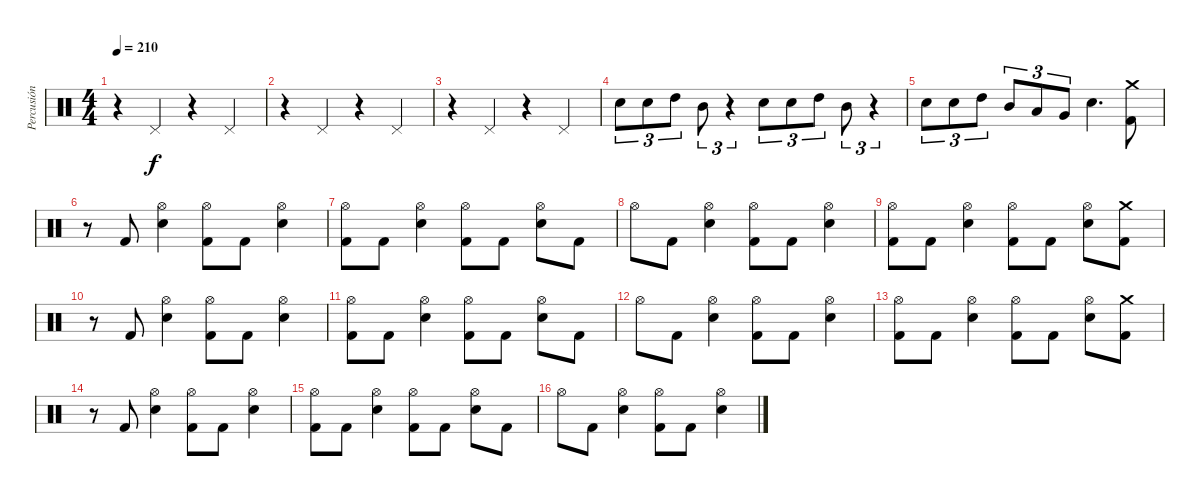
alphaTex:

\track ("Percusión" "Percusión") {instrument percussion}
\staff {score}
\articulation defaults
\ts (4 4)
\tempo 210
\clef neutral
\ks c
r.4{dy f} "Pedal Hi-Hat (hit)".4 r.4 "Pedal Hi-Hat (hit)".4 |
r.4 "Pedal Hi-Hat (hit)".4 r.4 "Pedal Hi-Hat (hit)".4 |
r.4 "Pedal Hi-Hat (hit)".4 r.4 "Pedal Hi-Hat (hit)".4 |
\section ("" "")
"Snare (hit) 2".8{tu (3 2)} "Snare (hit) 2".8{tu (3 2)} "High Tom (hit)".8{tu (3 2)} "Mid Tom (hit)".8{tu (3 2)} r.4{tu (3 2)} "Snare (hit) 2".8{tu (3 2)} "Snare (hit) 2".8{tu (3 2)} "High Tom (hit)".8{tu (3 2)} "Mid Tom (hit)".8{tu (3 2)} r.4{tu (3 2)} |
"Snare (hit) 2".8{tu (3 2)} "Snare (hit) 2".8{tu (3 2)} "High Tom (hit)".8{tu (3 2)} "Mid Tom (hit)".8{tu (3 2)} "Low Tom (hit)".8{tu (3 2)} "Very Low Tom (hit)".8{tu (3 2)} "Snare (hit) 2".4{d} ("Kick (hit) 2" "Crash medium (hit)").8 |
r.8 "Kick (hit) 2".8 ("Hi-Hat (open)" "Snare (hit) 2").4 ("Hi-Hat (open)" "Kick (hit) 2").8 "Kick (hit) 2".8 ("Hi-Hat (open)" "Snare (hit) 2").4 |
("Hi-Hat (open)" "Kick (hit) 2").8 "Kick (hit) 2".8 ("Hi-Hat (open)" "Snare (hit) 2").4 ("Hi-Hat (open)" "Kick (hit) 2").8 "Kick (hit) 2".8 ("Hi-Hat (open)" "Snare (hit) 2").8 "Kick (hit) 2".8 |
"Hi-Hat (open)".8 "Kick (hit) 2".8 ("Hi-Hat (open)" "Snare (hit) 2").4 ("Hi-Hat (open)" "Kick (hit) 2").8 "Kick (hit) 2".8 ("Hi-Hat (open)" "Snare (hit) 2").4 |
("Hi-Hat (open)" "Kick (hit) 2").8 "Kick (hit) 2".8 ("Hi-Hat (open)" "Snare (hit) 2").4 ("Hi-Hat (open)" "Kick (hit) 2").8 "Kick (hit) 2".8 ("Hi-Hat (open)" "Snare (hit) 2").8 ("Kick (hit) 2" "Crash medium (hit)").8 |
r.8 "Kick (hit) 2".8 ("Hi-Hat (open)" "Snare (hit) 2").4 ("Hi-Hat (open)" "Kick (hit) 2").8 "Kick (hit) 2".8 ("Hi-Hat (open)" "Snare (hit) 2").4 |
("Hi-Hat (open)" "Kick (hit) 2").8 "Kick (hit) 2".8 ("Hi-Hat (open)" "Snare (hit) 2").4 ("Hi-Hat (open)" "Kick (hit) 2").8 "Kick (hit) 2".8 ("Hi-Hat (open)" "Snare (hit) 2").8 "Kick (hit) 2".8 |
"Hi-Hat (open)".8 "Kick (hit) 2".8 ("Hi-Hat (open)" "Snare (hit) 2").4 ("Hi-Hat (open)" "Kick (hit) 2").8 "Kick (hit) 2".8 ("Hi-Hat (open)" "Snare (hit) 2").4 |
\section ("" "")
("Hi-Hat (open)" "Kick (hit) 2").8 "Kick (hit) 2".8 ("Hi-Hat (open)" "Snare (hit) 2").4 ("Hi-Hat (open)" "Kick (hit) 2").8 "Kick (hit) 2".8 ("Hi-Hat (open)" "Snare (hit) 2").8 ("Kick (hit) 2" "Crash medium (hit)").8 |
r.8 "Kick (hit) 2".8 ("Hi-Hat (open)" "Snare (hit) 2").4 ("Hi-Hat (open)" "Kick (hit) 2").8 "Kick (hit) 2".8 ("Hi-Hat (open)" "Snare (hit) 2").4 |
("Hi-Hat (open)" "Kick (hit) 2").8 "Kick (hit) 2".8 ("Hi-Hat (open)" "Snare (hit) 2").4 ("Hi-Hat (open)" "Kick (hit) 2").8 "Kick (hit) 2".8 ("Hi-Hat (open)" "Snare (hit) 2").8 "Kick (hit) 2".8 |
"Hi-Hat (open)".8 "Kick (hit) 2".8 ("Hi-Hat (open)" "Snare (hit) 2").4 ("Hi-Hat (open)" "Kick (hit) 2").8 "Kick (hit) 2".8 ("Hi-Hat (open)" "Snare (hit) 2").4
